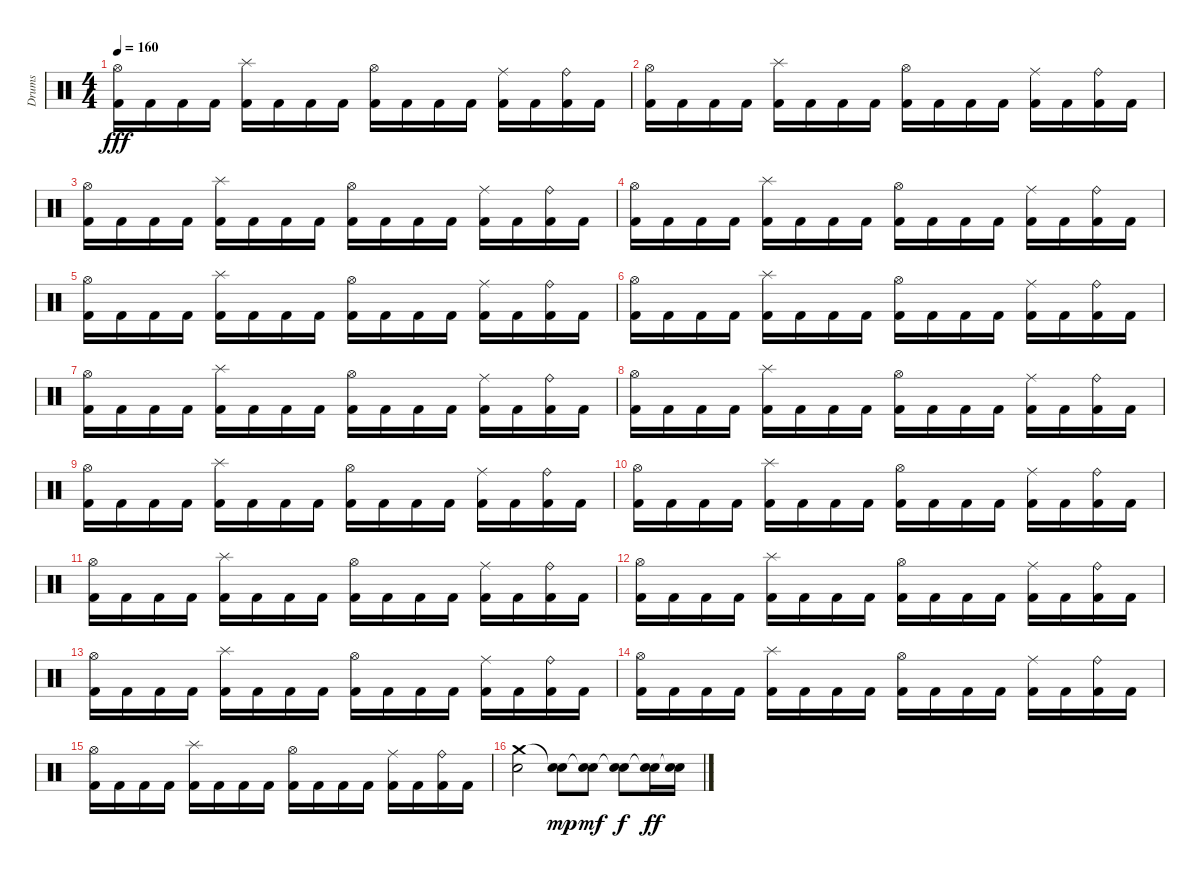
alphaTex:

\track ("Drums" "Drums") {instrument percussion}
\staff {score}
\articulation defaults
\ts (4 4)
\tempo 160
\clef neutral
\ks c
("Kick (hit) 2" "Hi-Hat (open)").16{dy fff} "Kick (hit) 2".16 "Kick (hit) 2".16 "Kick (hit) 2".16 ("Kick (hit) 2" "Splash (hit)").16 "Kick (hit) 2".16 "Kick (hit) 2".16 "Kick (hit) 2".16 ("Kick (hit) 2" "Hi-Hat (open)").16 "Kick (hit) 2".16 "Kick (hit) 2".16 "Kick (hit) 2".16 ("Kick (hit) 2" "Ride (middle)").16 "Kick (hit) 2".16 ("Kick (hit) 2" "Ride (bell)").16 "Kick (hit) 2".16 |
("Kick (hit) 2" "Hi-Hat (open)").16 "Kick (hit) 2".16 "Kick (hit) 2".16 "Kick (hit) 2".16 ("Kick (hit) 2" "Splash (hit)").16 "Kick (hit) 2".16 "Kick (hit) 2".16 "Kick (hit) 2".16 ("Kick (hit) 2" "Hi-Hat (open)").16 "Kick (hit) 2".16 "Kick (hit) 2".16 "Kick (hit) 2".16 ("Kick (hit) 2" "Ride (middle)").16 "Kick (hit) 2".16 ("Kick (hit) 2" "Ride (bell)").16 "Kick (hit) 2".16 |
("Kick (hit) 2" "Hi-Hat (open)").16 "Kick (hit) 2".16 "Kick (hit) 2".16 "Kick (hit) 2".16 ("Kick (hit) 2" "Splash (hit)").16 "Kick (hit) 2".16 "Kick (hit) 2".16 "Kick (hit) 2".16 ("Kick (hit) 2" "Hi-Hat (open)").16 "Kick (hit) 2".16 "Kick (hit) 2".16 "Kick (hit) 2".16 ("Kick (hit) 2" "Ride (middle)").16 "Kick (hit) 2".16 ("Kick (hit) 2" "Ride (bell)").16 "Kick (hit) 2".16 |
("Kick (hit) 2" "Hi-Hat (open)").16 "Kick (hit) 2".16 "Kick (hit) 2".16 "Kick (hit) 2".16 ("Kick (hit) 2" "Splash (hit)").16 "Kick (hit) 2".16 "Kick (hit) 2".16 "Kick (hit) 2".16 ("Kick (hit) 2" "Hi-Hat (open)").16 "Kick (hit) 2".16 "Kick (hit) 2".16 "Kick (hit) 2".16 ("Kick (hit) 2" "Ride (middle)").16 "Kick (hit) 2".16 ("Kick (hit) 2" "Ride (bell)").16 "Kick (hit) 2".16 |
("Kick (hit) 2" "Hi-Hat (open)").16 "Kick (hit) 2".16 "Kick (hit) 2".16 "Kick (hit) 2".16 ("Kick (hit) 2" "Splash (hit)").16 "Kick (hit) 2".16 "Kick (hit) 2".16 "Kick (hit) 2".16 ("Kick (hit) 2" "Hi-Hat (open)").16 "Kick (hit) 2".16 "Kick (hit) 2".16 "Kick (hit) 2".16 ("Kick (hit) 2" "Ride (middle)").16 "Kick (hit) 2".16 ("Kick (hit) 2" "Ride (bell)").16 "Kick (hit) 2".16 |
("Kick (hit) 2" "Hi-Hat (open)").16 "Kick (hit) 2".16 "Kick (hit) 2".16 "Kick (hit) 2".16 ("Kick (hit) 2" "Splash (hit)").16 "Kick (hit) 2".16 "Kick (hit) 2".16 "Kick (hit) 2".16 ("Kick (hit) 2" "Hi-Hat (open)").16 "Kick (hit) 2".16 "Kick (hit) 2".16 "Kick (hit) 2".16 ("Kick (hit) 2" "Ride (middle)").16 "Kick (hit) 2".16 ("Kick (hit) 2" "Ride (bell)").16 "Kick (hit) 2".16 |
("Kick (hit) 2" "Hi-Hat (open)").16 "Kick (hit) 2".16 "Kick (hit) 2".16 "Kick (hit) 2".16 ("Kick (hit) 2" "Splash (hit)").16 "Kick (hit) 2".16 "Kick (hit) 2".16 "Kick (hit) 2".16 ("Kick (hit) 2" "Hi-Hat (open)").16 "Kick (hit) 2".16 "Kick (hit) 2".16 "Kick (hit) 2".16 ("Kick (hit) 2" "Ride (middle)").16 "Kick (hit) 2".16 ("Kick (hit) 2" "Ride (bell)").16 "Kick (hit) 2".16 |
("Kick (hit) 2" "Hi-Hat (open)").16 "Kick (hit) 2".16 "Kick (hit) 2".16 "Kick (hit) 2".16 ("Kick (hit) 2" "Splash (hit)").16 "Kick (hit) 2".16 "Kick (hit) 2".16 "Kick (hit) 2".16 ("Kick (hit) 2" "Hi-Hat (open)").16 "Kick (hit) 2".16 "Kick (hit) 2".16 "Kick (hit) 2".16 ("Kick (hit) 2" "Ride (middle)").16 "Kick (hit) 2".16 ("Kick (hit) 2" "Ride (bell)").16 "Kick (hit) 2".16 |
("Kick (hit) 2" "Hi-Hat (open)").16 "Kick (hit) 2".16 "Kick (hit) 2".16 "Kick (hit) 2".16 ("Kick (hit) 2" "Splash (hit)").16 "Kick (hit) 2".16 "Kick (hit) 2".16 "Kick (hit) 2".16 ("Kick (hit) 2" "Hi-Hat (open)").16 "Kick (hit) 2".16 "Kick (hit) 2".16 "Kick (hit) 2".16 ("Kick (hit) 2" "Ride (middle)").16 "Kick (hit) 2".16 ("Kick (hit) 2" "Ride (bell)").16 "Kick (hit) 2".16 |
("Kick (hit) 2" "Hi-Hat (open)").16 "Kick (hit) 2".16 "Kick (hit) 2".16 "Kick (hit) 2".16 ("Kick (hit) 2" "Splash (hit)").16 "Kick (hit) 2".16 "Kick (hit) 2".16 "Kick (hit) 2".16 ("Kick (hit) 2" "Hi-Hat (open)").16 "Kick (hit) 2".16 "Kick (hit) 2".16 "Kick (hit) 2".16 ("Kick (hit) 2" "Ride (middle)").16 "Kick (hit) 2".16 ("Kick (hit) 2" "Ride (bell)").16 "Kick (hit) 2".16 |
("Kick (hit) 2" "Hi-Hat (open)").16 "Kick (hit) 2".16 "Kick (hit) 2".16 "Kick (hit) 2".16 ("Kick (hit) 2" "Splash (hit)").16 "Kick (hit) 2".16 "Kick (hit) 2".16 "Kick (hit) 2".16 ("Kick (hit) 2" "Hi-Hat (open)").16 "Kick (hit) 2".16 "Kick (hit) 2".16 "Kick (hit) 2".16 ("Kick (hit) 2" "Ride (middle)").16 "Kick (hit) 2".16 ("Kick (hit) 2" "Ride (bell)").16 "Kick (hit) 2".16 |
("Kick (hit) 2" "Hi-Hat (open)").16 "Kick (hit) 2".16 "Kick (hit) 2".16 "Kick (hit) 2".16 ("Kick (hit) 2" "Splash (hit)").16 "Kick (hit) 2".16 "Kick (hit) 2".16 "Kick (hit) 2".16 ("Kick (hit) 2" "Hi-Hat (open)").16 "Kick (hit) 2".16 "Kick (hit) 2".16 "Kick (hit) 2".16 ("Kick (hit) 2" "Ride (middle)").16 "Kick (hit) 2".16 ("Kick (hit) 2" "Ride (bell)").16 "Kick (hit) 2".16 |
("Kick (hit) 2" "Hi-Hat (open)").16 "Kick (hit) 2".16 "Kick (hit) 2".16 "Kick (hit) 2".16 ("Kick (hit) 2" "Splash (hit)").16 "Kick (hit) 2".16 "Kick (hit) 2".16 "Kick (hit) 2".16 ("Kick (hit) 2" "Hi-Hat (open)").16 "Kick (hit) 2".16 "Kick (hit) 2".16 "Kick (hit) 2".16 ("Kick (hit) 2" "Ride (middle)").16 "Kick (hit) 2".16 ("Kick (hit) 2" "Ride (bell)").16 "Kick (hit) 2".16 |
("Kick (hit) 2" "Hi-Hat (open)").16 "Kick (hit) 2".16 "Kick (hit) 2".16 "Kick (hit) 2".16 ("Kick (hit) 2" "Splash (hit)").16 "Kick (hit) 2".16 "Kick (hit) 2".16 "Kick (hit) 2".16 ("Kick (hit) 2" "Hi-Hat (open)").16 "Kick (hit) 2".16 "Kick (hit) 2".16 "Kick (hit) 2".16 ("Kick (hit) 2" "Ride (middle)").16 "Kick (hit) 2".16 ("Kick (hit) 2" "Ride (bell)").16 "Kick (hit) 2".16 |
("Kick (hit) 2" "Hi-Hat (open)").16 "Kick (hit) 2".16 "Kick (hit) 2".16 "Kick (hit) 2".16 ("Kick (hit) 2" "Splash (hit)").16 "Kick (hit) 2".16 "Kick (hit) 2".16 "Kick (hit) 2".16 ("Kick (hit) 2" "Hi-Hat (open)").16 "Kick (hit) 2".16 "Kick (hit) 2".16 "Kick (hit) 2".16 ("Kick (hit) 2" "Ride (middle)").16 "Kick (hit) 2".16 ("Kick (hit) 2" "Ride (bell)").16 "Kick (hit) 2".16 |
("Crash medium (hit)" "Electric Snare (hit)").2 ("Snare (hit)"{t} "Electric Snare (hit)").8{dy mp} ("Snare (hit)"{t} "Electric Snare (hit)").8{dy mf} ("Snare (hit)"{t} "Electric Snare (hit)").8{dy f} ("Snare (hit)"{t} "Electric Snare (hit)").16{dy ff} ("Snare (hit)"{t} "Electric Snare (hit)").16
